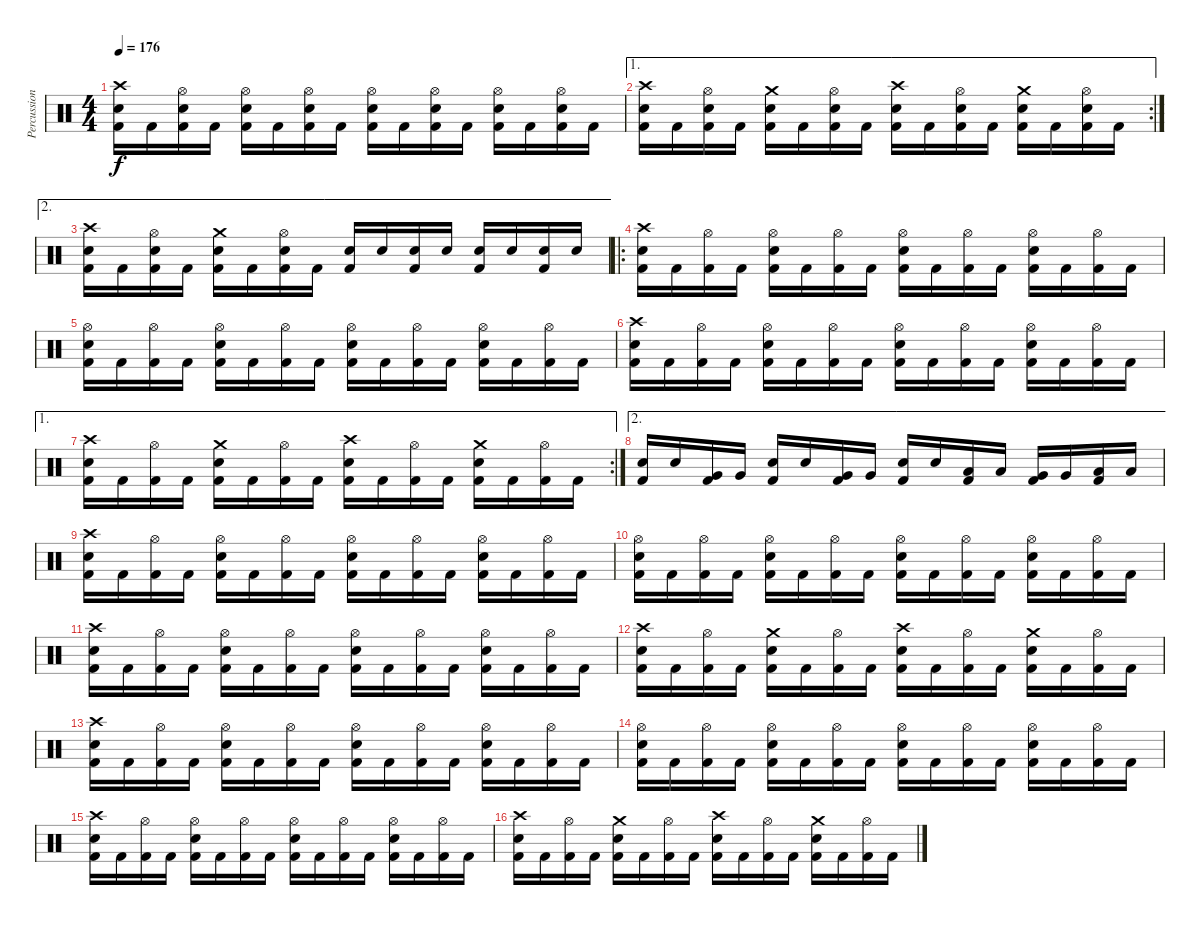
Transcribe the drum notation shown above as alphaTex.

\track ("Percussion" "Percussion") {instrument percussion}
\staff {score}
\articulation defaults
\ts (4 4)
\tempo 176
\clef neutral
\ks c
("Crash high (hit)" "Electric Snare (hit)" "Kick (hit) 2").16{dy f} "Kick (hit) 2".16 ("Hi-Hat (open)" "Electric Snare (hit)" "Kick (hit) 2").16 "Kick (hit) 2".16 ("Hi-Hat (open)" "Electric Snare (hit)" "Kick (hit) 2").16 "Kick (hit) 2".16 ("Hi-Hat (open)" "Electric Snare (hit)" "Kick (hit) 2").16 "Kick (hit) 2".16 ("Hi-Hat (open)" "Electric Snare (hit)" "Kick (hit) 2").16 "Kick (hit) 2".16 ("Hi-Hat (open)" "Electric Snare (hit)" "Kick (hit) 2").16 "Kick (hit) 2".16 ("Hi-Hat (open)" "Electric Snare (hit)" "Kick (hit) 2").16 "Kick (hit) 2".16 ("Hi-Hat (open)" "Electric Snare (hit)" "Kick (hit) 2").16 "Kick (hit) 2".16 |
\ae 1
\rc 2
("Crash high (hit)" "Electric Snare (hit)" "Kick (hit) 2").16 "Kick (hit) 2".16 ("Hi-Hat (open)" "Electric Snare (hit)" "Kick (hit) 2").16 "Kick (hit) 2".16 ("Crash medium (hit)" "Electric Snare (hit)" "Kick (hit) 2").16 "Kick (hit) 2".16 ("Hi-Hat (open)" "Electric Snare (hit)" "Kick (hit) 2").16 "Kick (hit) 2".16 ("Crash high (hit)" "Electric Snare (hit)" "Kick (hit) 2").16 "Kick (hit) 2".16 ("Hi-Hat (open)" "Electric Snare (hit)" "Kick (hit) 2").16 "Kick (hit) 2".16 ("Crash medium (hit)" "Electric Snare (hit)" "Kick (hit) 2").16 "Kick (hit) 2".16 ("Hi-Hat (open)" "Electric Snare (hit)" "Kick (hit) 2").16 "Kick (hit) 2".16 |
\ae 2
("Crash high (hit)" "Electric Snare (hit)" "Kick (hit) 2").16 "Kick (hit) 2".16 ("Hi-Hat (open)" "Electric Snare (hit)" "Kick (hit) 2").16 "Kick (hit) 2".16 ("Crash medium (hit)" "Electric Snare (hit)" "Kick (hit) 2").16 "Kick (hit) 2".16 ("Hi-Hat (open)" "Electric Snare (hit)" "Kick (hit) 2").16 "Kick (hit) 2".16 ("Electric Snare (hit)" "Kick (hit) 2").16 "Electric Snare (hit)".16 ("Electric Snare (hit)" "Kick (hit) 2").16 "Electric Snare (hit)".16 ("Electric Snare (hit)" "Kick (hit) 2").16 "Electric Snare (hit)".16 ("Electric Snare (hit)" "Kick (hit) 2").16 "Electric Snare (hit)".16 |
\ro
("Crash high (hit)" "Electric Snare (hit)" "Kick (hit) 2").16 "Kick (hit) 2".16 ("Hi-Hat (open)" "Kick (hit) 2").16 "Kick (hit) 2".16 ("Hi-Hat (open)" "Electric Snare (hit)" "Kick (hit) 2").16 "Kick (hit) 2".16 ("Hi-Hat (open)" "Kick (hit) 2").16 "Kick (hit) 2".16 ("Hi-Hat (open)" "Electric Snare (hit)" "Kick (hit) 2").16 "Kick (hit) 2".16 ("Hi-Hat (open)" "Kick (hit) 2").16 "Kick (hit) 2".16 ("Hi-Hat (open)" "Electric Snare (hit)" "Kick (hit) 2").16 "Kick (hit) 2".16 ("Hi-Hat (open)" "Kick (hit) 2").16 "Kick (hit) 2".16 |
("Hi-Hat (open)" "Electric Snare (hit)" "Kick (hit) 2").16 "Kick (hit) 2".16 ("Hi-Hat (open)" "Kick (hit) 2").16 "Kick (hit) 2".16 ("Hi-Hat (open)" "Electric Snare (hit)" "Kick (hit) 2").16 "Kick (hit) 2".16 ("Hi-Hat (open)" "Kick (hit) 2").16 "Kick (hit) 2".16 ("Hi-Hat (open)" "Electric Snare (hit)" "Kick (hit) 2").16 "Kick (hit) 2".16 ("Hi-Hat (open)" "Kick (hit) 2").16 "Kick (hit) 2".16 ("Hi-Hat (open)" "Electric Snare (hit)" "Kick (hit) 2").16 "Kick (hit) 2".16 ("Hi-Hat (open)" "Kick (hit) 2").16 "Kick (hit) 2".16 |
("Crash high (hit)" "Electric Snare (hit)" "Kick (hit) 2").16 "Kick (hit) 2".16 ("Hi-Hat (open)" "Kick (hit) 2").16 "Kick (hit) 2".16 ("Hi-Hat (open)" "Electric Snare (hit)" "Kick (hit) 2").16 "Kick (hit) 2".16 ("Hi-Hat (open)" "Kick (hit) 2").16 "Kick (hit) 2".16 ("Hi-Hat (open)" "Electric Snare (hit)" "Kick (hit) 2").16 "Kick (hit) 2".16 ("Hi-Hat (open)" "Kick (hit) 2").16 "Kick (hit) 2".16 ("Hi-Hat (open)" "Electric Snare (hit)" "Kick (hit) 2").16 "Kick (hit) 2".16 ("Hi-Hat (open)" "Kick (hit) 2").16 "Kick (hit) 2".16 |
\ae 1
\rc 2
("Crash high (hit)" "Electric Snare (hit)" "Kick (hit) 2").16 "Kick (hit) 2".16 ("Hi-Hat (open)" "Kick (hit) 2").16 "Kick (hit) 2".16 ("Crash medium (hit)" "Electric Snare (hit)" "Kick (hit) 2").16 "Kick (hit) 2".16 ("Hi-Hat (open)" "Kick (hit) 2").16 "Kick (hit) 2".16 ("Crash high (hit)" "Electric Snare (hit)" "Kick (hit) 2").16 "Kick (hit) 2".16 ("Hi-Hat (open)" "Kick (hit) 2").16 "Kick (hit) 2".16 ("Crash medium (hit)" "Electric Snare (hit)" "Kick (hit) 2").16 "Kick (hit) 2".16 ("Hi-Hat (open)" "Kick (hit) 2").16 "Kick (hit) 2".16 |
\ae 2
("Electric Snare (hit)" "Kick (hit) 2").16 "Electric Snare (hit)".16 ("Very Low Tom (hit)" "Kick (hit) 2").16 "Very Low Tom (hit)".16 ("Electric Snare (hit)" "Kick (hit) 2").16 "Electric Snare (hit)".16 ("Very Low Tom (hit)" "Kick (hit) 2").16 "Very Low Tom (hit)".16 ("Electric Snare (hit)" "Kick (hit) 2").16 "Electric Snare (hit)".16 ("Low Tom (hit)" "Kick (hit) 2").16 "Low Tom (hit)".16 ("Very Low Tom (hit)" "Kick (hit) 2").16 "Very Low Tom (hit)".16 ("Low Floor Tom (hit)" "Kick (hit) 2").16 "Low Floor Tom (hit)".16 |
("Crash high (hit)" "Electric Snare (hit)" "Kick (hit) 2").16 "Kick (hit) 2".16 ("Hi-Hat (open)" "Kick (hit) 2").16 "Kick (hit) 2".16 ("Hi-Hat (open)" "Electric Snare (hit)" "Kick (hit) 2").16 "Kick (hit) 2".16 ("Hi-Hat (open)" "Kick (hit) 2").16 "Kick (hit) 2".16 ("Hi-Hat (open)" "Electric Snare (hit)" "Kick (hit) 2").16 "Kick (hit) 2".16 ("Hi-Hat (open)" "Kick (hit) 2").16 "Kick (hit) 2".16 ("Hi-Hat (open)" "Electric Snare (hit)" "Kick (hit) 2").16 "Kick (hit) 2".16 ("Hi-Hat (open)" "Kick (hit) 2").16 "Kick (hit) 2".16 |
("Hi-Hat (open)" "Electric Snare (hit)" "Kick (hit) 2").16 "Kick (hit) 2".16 ("Hi-Hat (open)" "Kick (hit) 2").16 "Kick (hit) 2".16 ("Hi-Hat (open)" "Electric Snare (hit)" "Kick (hit) 2").16 "Kick (hit) 2".16 ("Hi-Hat (open)" "Kick (hit) 2").16 "Kick (hit) 2".16 ("Hi-Hat (open)" "Electric Snare (hit)" "Kick (hit) 2").16 "Kick (hit) 2".16 ("Hi-Hat (open)" "Kick (hit) 2").16 "Kick (hit) 2".16 ("Hi-Hat (open)" "Electric Snare (hit)" "Kick (hit) 2").16 "Kick (hit) 2".16 ("Hi-Hat (open)" "Kick (hit) 2").16 "Kick (hit) 2".16 |
("Crash high (hit)" "Electric Snare (hit)" "Kick (hit) 2").16 "Kick (hit) 2".16 ("Hi-Hat (open)" "Kick (hit) 2").16 "Kick (hit) 2".16 ("Hi-Hat (open)" "Electric Snare (hit)" "Kick (hit) 2").16 "Kick (hit) 2".16 ("Hi-Hat (open)" "Kick (hit) 2").16 "Kick (hit) 2".16 ("Hi-Hat (open)" "Electric Snare (hit)" "Kick (hit) 2").16 "Kick (hit) 2".16 ("Hi-Hat (open)" "Kick (hit) 2").16 "Kick (hit) 2".16 ("Hi-Hat (open)" "Electric Snare (hit)" "Kick (hit) 2").16 "Kick (hit) 2".16 ("Hi-Hat (open)" "Kick (hit) 2").16 "Kick (hit) 2".16 |
("Crash high (hit)" "Electric Snare (hit)" "Kick (hit) 2").16 "Kick (hit) 2".16 ("Hi-Hat (open)" "Kick (hit) 2").16 "Kick (hit) 2".16 ("Crash medium (hit)" "Electric Snare (hit)" "Kick (hit) 2").16 "Kick (hit) 2".16 ("Hi-Hat (open)" "Kick (hit) 2").16 "Kick (hit) 2".16 ("Crash high (hit)" "Electric Snare (hit)" "Kick (hit) 2").16 "Kick (hit) 2".16 ("Hi-Hat (open)" "Kick (hit) 2").16 "Kick (hit) 2".16 ("Crash medium (hit)" "Electric Snare (hit)" "Kick (hit) 2").16 "Kick (hit) 2".16 ("Hi-Hat (open)" "Kick (hit) 2").16 "Kick (hit) 2".16 |
("Crash high (hit)" "Electric Snare (hit)" "Kick (hit) 2").16 "Kick (hit) 2".16 ("Hi-Hat (open)" "Kick (hit) 2").16 "Kick (hit) 2".16 ("Hi-Hat (open)" "Electric Snare (hit)" "Kick (hit) 2").16 "Kick (hit) 2".16 ("Hi-Hat (open)" "Kick (hit) 2").16 "Kick (hit) 2".16 ("Hi-Hat (open)" "Electric Snare (hit)" "Kick (hit) 2").16 "Kick (hit) 2".16 ("Hi-Hat (open)" "Kick (hit) 2").16 "Kick (hit) 2".16 ("Hi-Hat (open)" "Electric Snare (hit)" "Kick (hit) 2").16 "Kick (hit) 2".16 ("Hi-Hat (open)" "Kick (hit) 2").16 "Kick (hit) 2".16 |
("Hi-Hat (open)" "Electric Snare (hit)" "Kick (hit) 2").16 "Kick (hit) 2".16 ("Hi-Hat (open)" "Kick (hit) 2").16 "Kick (hit) 2".16 ("Hi-Hat (open)" "Electric Snare (hit)" "Kick (hit) 2").16 "Kick (hit) 2".16 ("Hi-Hat (open)" "Kick (hit) 2").16 "Kick (hit) 2".16 ("Hi-Hat (open)" "Electric Snare (hit)" "Kick (hit) 2").16 "Kick (hit) 2".16 ("Hi-Hat (open)" "Kick (hit) 2").16 "Kick (hit) 2".16 ("Hi-Hat (open)" "Electric Snare (hit)" "Kick (hit) 2").16 "Kick (hit) 2".16 ("Hi-Hat (open)" "Kick (hit) 2").16 "Kick (hit) 2".16 |
("Crash high (hit)" "Electric Snare (hit)" "Kick (hit) 2").16 "Kick (hit) 2".16 ("Hi-Hat (open)" "Kick (hit) 2").16 "Kick (hit) 2".16 ("Hi-Hat (open)" "Electric Snare (hit)" "Kick (hit) 2").16 "Kick (hit) 2".16 ("Hi-Hat (open)" "Kick (hit) 2").16 "Kick (hit) 2".16 ("Hi-Hat (open)" "Electric Snare (hit)" "Kick (hit) 2").16 "Kick (hit) 2".16 ("Hi-Hat (open)" "Kick (hit) 2").16 "Kick (hit) 2".16 ("Hi-Hat (open)" "Electric Snare (hit)" "Kick (hit) 2").16 "Kick (hit) 2".16 ("Hi-Hat (open)" "Kick (hit) 2").16 "Kick (hit) 2".16 |
("Crash high (hit)" "Electric Snare (hit)" "Kick (hit) 2").16 "Kick (hit) 2".16 ("Hi-Hat (open)" "Kick (hit) 2").16 "Kick (hit) 2".16 ("Crash medium (hit)" "Electric Snare (hit)" "Kick (hit) 2").16 "Kick (hit) 2".16 ("Hi-Hat (open)" "Kick (hit) 2").16 "Kick (hit) 2".16 ("Crash high (hit)" "Electric Snare (hit)" "Kick (hit) 2").16 "Kick (hit) 2".16 ("Hi-Hat (open)" "Kick (hit) 2").16 "Kick (hit) 2".16 ("Crash medium (hit)" "Electric Snare (hit)" "Kick (hit) 2").16 "Kick (hit) 2".16 ("Hi-Hat (open)" "Kick (hit) 2").16 "Kick (hit) 2".16
